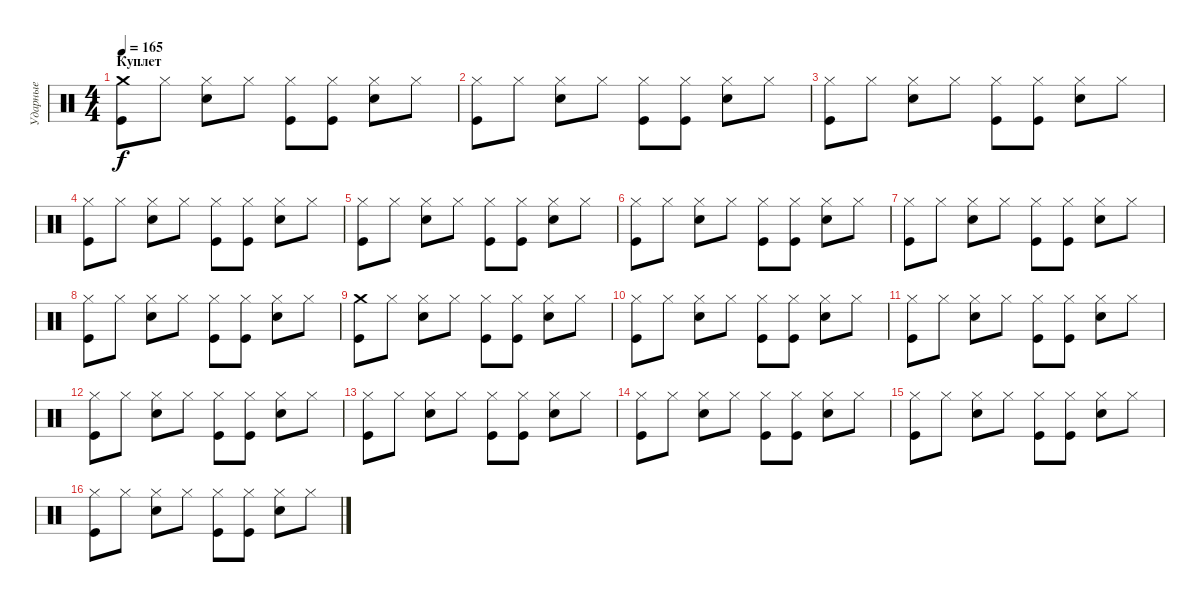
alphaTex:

\track ("Ударные" "Ударные") {instrument percussion}
\staff {score}
\articulation defaults
\ts (4 4)
\section ("" "Куплет")
\tempo 165
\clef neutral
\ks c
("Crash medium (hit)" "Kick (hit)").8{dy f} "Hi-Hat (closed)".8 ("Hi-Hat (closed)" "Electric Snare (hit)").8 "Hi-Hat (closed)".8 ("Hi-Hat (closed)" "Kick (hit)").8 ("Hi-Hat (closed)" "Kick (hit)").8 ("Hi-Hat (closed)" "Electric Snare (hit)").8 "Hi-Hat (closed)".8 |
("Hi-Hat (closed)" "Kick (hit)").8 "Hi-Hat (closed)".8 ("Hi-Hat (closed)" "Electric Snare (hit)").8 "Hi-Hat (closed)".8 ("Hi-Hat (closed)" "Kick (hit)").8 ("Hi-Hat (closed)" "Kick (hit)").8 ("Hi-Hat (closed)" "Electric Snare (hit)").8 "Hi-Hat (closed)".8 |
("Hi-Hat (closed)" "Kick (hit)").8 "Hi-Hat (closed)".8 ("Hi-Hat (closed)" "Electric Snare (hit)").8 "Hi-Hat (closed)".8 ("Hi-Hat (closed)" "Kick (hit)").8 ("Hi-Hat (closed)" "Kick (hit)").8 ("Hi-Hat (closed)" "Electric Snare (hit)").8 "Hi-Hat (closed)".8 |
("Hi-Hat (closed)" "Kick (hit)").8 "Hi-Hat (closed)".8 ("Hi-Hat (closed)" "Electric Snare (hit)").8 "Hi-Hat (closed)".8 ("Hi-Hat (closed)" "Kick (hit)").8 ("Hi-Hat (closed)" "Kick (hit)").8 ("Hi-Hat (closed)" "Electric Snare (hit)").8 "Hi-Hat (closed)".8 |
("Hi-Hat (closed)" "Kick (hit)").8 "Hi-Hat (closed)".8 ("Hi-Hat (closed)" "Electric Snare (hit)").8 "Hi-Hat (closed)".8 ("Hi-Hat (closed)" "Kick (hit)").8 ("Hi-Hat (closed)" "Kick (hit)").8 ("Hi-Hat (closed)" "Electric Snare (hit)").8 "Hi-Hat (closed)".8 |
("Hi-Hat (closed)" "Kick (hit)").8 "Hi-Hat (closed)".8 ("Hi-Hat (closed)" "Electric Snare (hit)").8 "Hi-Hat (closed)".8 ("Hi-Hat (closed)" "Kick (hit)").8 ("Hi-Hat (closed)" "Kick (hit)").8 ("Hi-Hat (closed)" "Electric Snare (hit)").8 "Hi-Hat (closed)".8 |
("Hi-Hat (closed)" "Kick (hit)").8 "Hi-Hat (closed)".8 ("Hi-Hat (closed)" "Electric Snare (hit)").8 "Hi-Hat (closed)".8 ("Hi-Hat (closed)" "Kick (hit)").8 ("Hi-Hat (closed)" "Kick (hit)").8 ("Hi-Hat (closed)" "Electric Snare (hit)").8 "Hi-Hat (closed)".8 |
("Hi-Hat (closed)" "Kick (hit)").8 "Hi-Hat (closed)".8 ("Hi-Hat (closed)" "Electric Snare (hit)").8 "Hi-Hat (closed)".8 ("Hi-Hat (closed)" "Kick (hit)").8 ("Hi-Hat (closed)" "Kick (hit)").8 ("Hi-Hat (closed)" "Electric Snare (hit)").8 "Hi-Hat (closed)".8 |
("Crash medium (hit)" "Kick (hit)").8 "Hi-Hat (closed)".8 ("Hi-Hat (closed)" "Electric Snare (hit)").8 "Hi-Hat (closed)".8 ("Hi-Hat (closed)" "Kick (hit)").8 ("Hi-Hat (closed)" "Kick (hit)").8 ("Hi-Hat (closed)" "Electric Snare (hit)").8 "Hi-Hat (closed)".8 |
("Hi-Hat (closed)" "Kick (hit)").8 "Hi-Hat (closed)".8 ("Hi-Hat (closed)" "Electric Snare (hit)").8 "Hi-Hat (closed)".8 ("Hi-Hat (closed)" "Kick (hit)").8 ("Hi-Hat (closed)" "Kick (hit)").8 ("Hi-Hat (closed)" "Electric Snare (hit)").8 "Hi-Hat (closed)".8 |
("Hi-Hat (closed)" "Kick (hit)").8 "Hi-Hat (closed)".8 ("Hi-Hat (closed)" "Electric Snare (hit)").8 "Hi-Hat (closed)".8 ("Hi-Hat (closed)" "Kick (hit)").8 ("Hi-Hat (closed)" "Kick (hit)").8 ("Hi-Hat (closed)" "Electric Snare (hit)").8 "Hi-Hat (closed)".8 |
("Hi-Hat (closed)" "Kick (hit)").8 "Hi-Hat (closed)".8 ("Hi-Hat (closed)" "Electric Snare (hit)").8 "Hi-Hat (closed)".8 ("Hi-Hat (closed)" "Kick (hit)").8 ("Hi-Hat (closed)" "Kick (hit)").8 ("Hi-Hat (closed)" "Electric Snare (hit)").8 "Hi-Hat (closed)".8 |
("Hi-Hat (closed)" "Kick (hit)").8 "Hi-Hat (closed)".8 ("Hi-Hat (closed)" "Electric Snare (hit)").8 "Hi-Hat (closed)".8 ("Hi-Hat (closed)" "Kick (hit)").8 ("Hi-Hat (closed)" "Kick (hit)").8 ("Hi-Hat (closed)" "Electric Snare (hit)").8 "Hi-Hat (closed)".8 |
("Hi-Hat (closed)" "Kick (hit)").8 "Hi-Hat (closed)".8 ("Hi-Hat (closed)" "Electric Snare (hit)").8 "Hi-Hat (closed)".8 ("Hi-Hat (closed)" "Kick (hit)").8 ("Hi-Hat (closed)" "Kick (hit)").8 ("Hi-Hat (closed)" "Electric Snare (hit)").8 "Hi-Hat (closed)".8 |
("Hi-Hat (closed)" "Kick (hit)").8 "Hi-Hat (closed)".8 ("Hi-Hat (closed)" "Electric Snare (hit)").8 "Hi-Hat (closed)".8 ("Hi-Hat (closed)" "Kick (hit)").8 ("Hi-Hat (closed)" "Kick (hit)").8 ("Hi-Hat (closed)" "Electric Snare (hit)").8 "Hi-Hat (closed)".8 |
("Hi-Hat (closed)" "Kick (hit)").8 "Hi-Hat (closed)".8 ("Hi-Hat (closed)" "Electric Snare (hit)").8 "Hi-Hat (closed)".8 ("Hi-Hat (closed)" "Kick (hit)").8 ("Hi-Hat (closed)" "Kick (hit)").8 ("Hi-Hat (closed)" "Electric Snare (hit)").8 "Hi-Hat (closed)".8
